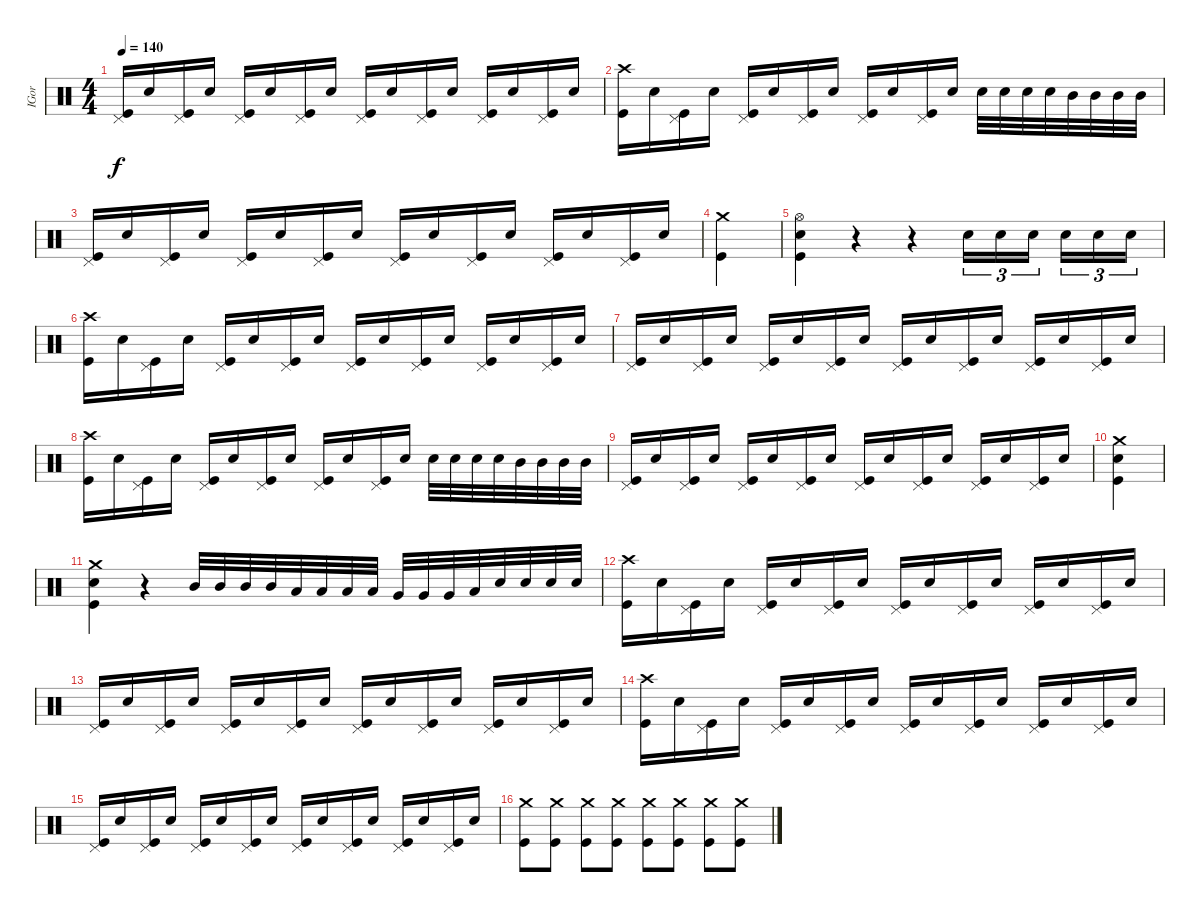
\track ("IGor" "IGor") {instrument percussion}
\staff {score}
\articulation defaults
\ts (4 4)
\tempo 140
\clef neutral
\ks c
("Kick (hit)" "Pedal Hi-Hat (hit)").16{dy f} "Electric Snare (hit)".16 ("Pedal Hi-Hat (hit)" "Kick (hit)").16 "Electric Snare (hit)".16 ("Pedal Hi-Hat (hit)" "Kick (hit)").16 "Electric Snare (hit)".16 ("Pedal Hi-Hat (hit)" "Kick (hit)").16 "Electric Snare (hit)".16 ("Pedal Hi-Hat (hit)" "Kick (hit)").16 "Electric Snare (hit)".16 ("Pedal Hi-Hat (hit)" "Kick (hit)").16 "Electric Snare (hit)".16 ("Pedal Hi-Hat (hit)" "Kick (hit)").16 "Electric Snare (hit)".16 ("Pedal Hi-Hat (hit)" "Kick (hit)").16 "Electric Snare (hit)".16 |
("Kick (hit)" "Crash high (hit)").16 "Electric Snare (hit)".16 ("Pedal Hi-Hat (hit)" "Kick (hit)").16 "Electric Snare (hit)".16 ("Pedal Hi-Hat (hit)" "Kick (hit)").16 "Electric Snare (hit)".16 ("Pedal Hi-Hat (hit)" "Kick (hit)").16 "Electric Snare (hit)".16 ("Pedal Hi-Hat (hit)" "Kick (hit)").16 "Electric Snare (hit)".16 ("Pedal Hi-Hat (hit)" "Kick (hit)").16 "Electric Snare (hit)".16 "Electric Snare (hit)".32 "Electric Snare (hit)".32 "Electric Snare (hit)".32 "Electric Snare (hit)".32 "Mid Tom (hit)".32 "Mid Tom (hit)".32 "Mid Tom (hit)".32 "Mid Tom (hit)".32 |
("Kick (hit)" "Pedal Hi-Hat (hit)").16 "Electric Snare (hit)".16 ("Pedal Hi-Hat (hit)" "Kick (hit)").16 "Electric Snare (hit)".16 ("Pedal Hi-Hat (hit)" "Kick (hit)").16 "Electric Snare (hit)".16 ("Pedal Hi-Hat (hit)" "Kick (hit)").16 "Electric Snare (hit)".16 ("Pedal Hi-Hat (hit)" "Kick (hit)").16 "Electric Snare (hit)".16 ("Pedal Hi-Hat (hit)" "Kick (hit)").16 "Electric Snare (hit)".16 ("Pedal Hi-Hat (hit)" "Kick (hit)").16 "Electric Snare (hit)".16 ("Pedal Hi-Hat (hit)" "Kick (hit)").16 "Electric Snare (hit)".16 |
("Kick (hit)" "Crash medium (hit)").4 |
("Electric Snare (hit)" "Kick (hit)" "Hi-Hat (open)").4 r.4 r.4 "Electric Snare (hit)".16{tu (3 2)} "Electric Snare (hit)".16{tu (3 2)} "Electric Snare (hit)".16{tu (3 2)} "Electric Snare (hit)".16{tu (3 2)} "Electric Snare (hit)".16{tu (3 2)} "Electric Snare (hit)".16{tu (3 2)} |
("Kick (hit)" "Crash high (hit)").16 "Electric Snare (hit)".16 ("Pedal Hi-Hat (hit)" "Kick (hit)").16 "Electric Snare (hit)".16 ("Pedal Hi-Hat (hit)" "Kick (hit)").16 "Electric Snare (hit)".16 ("Pedal Hi-Hat (hit)" "Kick (hit)").16 "Electric Snare (hit)".16 ("Pedal Hi-Hat (hit)" "Kick (hit)").16 "Electric Snare (hit)".16 ("Pedal Hi-Hat (hit)" "Kick (hit)").16 "Electric Snare (hit)".16 ("Pedal Hi-Hat (hit)" "Kick (hit)").16 "Electric Snare (hit)".16 ("Pedal Hi-Hat (hit)" "Kick (hit)").16 "Electric Snare (hit)".16 |
("Kick (hit)" "Pedal Hi-Hat (hit)").16 "Electric Snare (hit)".16 ("Pedal Hi-Hat (hit)" "Kick (hit)").16 "Electric Snare (hit)".16 ("Pedal Hi-Hat (hit)" "Kick (hit)").16 "Electric Snare (hit)".16 ("Pedal Hi-Hat (hit)" "Kick (hit)").16 "Electric Snare (hit)".16 ("Pedal Hi-Hat (hit)" "Kick (hit)").16 "Electric Snare (hit)".16 ("Pedal Hi-Hat (hit)" "Kick (hit)").16 "Electric Snare (hit)".16 ("Pedal Hi-Hat (hit)" "Kick (hit)").16 "Electric Snare (hit)".16 ("Pedal Hi-Hat (hit)" "Kick (hit)").16 "Electric Snare (hit)".16 |
("Kick (hit)" "Crash high (hit)").16 "Electric Snare (hit)".16 ("Pedal Hi-Hat (hit)" "Kick (hit)").16 "Electric Snare (hit)".16 ("Pedal Hi-Hat (hit)" "Kick (hit)").16 "Electric Snare (hit)".16 ("Pedal Hi-Hat (hit)" "Kick (hit)").16 "Electric Snare (hit)".16 ("Pedal Hi-Hat (hit)" "Kick (hit)").16 "Electric Snare (hit)".16 ("Pedal Hi-Hat (hit)" "Kick (hit)").16 "Electric Snare (hit)".16 "Electric Snare (hit)".32 "Electric Snare (hit)".32 "Electric Snare (hit)".32 "Electric Snare (hit)".32 "Mid Tom (hit)".32 "Mid Tom (hit)".32 "Mid Tom (hit)".32 "Mid Tom (hit)".32 |
("Kick (hit)" "Pedal Hi-Hat (hit)").16 "Electric Snare (hit)".16 ("Pedal Hi-Hat (hit)" "Kick (hit)").16 "Electric Snare (hit)".16 ("Pedal Hi-Hat (hit)" "Kick (hit)").16 "Electric Snare (hit)".16 ("Pedal Hi-Hat (hit)" "Kick (hit)").16 "Electric Snare (hit)".16 ("Pedal Hi-Hat (hit)" "Kick (hit)").16 "Electric Snare (hit)".16 ("Pedal Hi-Hat (hit)" "Kick (hit)").16 "Electric Snare (hit)".16 ("Pedal Hi-Hat (hit)" "Kick (hit)").16 "Electric Snare (hit)".16 ("Pedal Hi-Hat (hit)" "Kick (hit)").16 "Electric Snare (hit)".16 |
("Electric Snare (hit)" "Kick (hit)" "Crash medium (hit)").4 |
("Electric Snare (hit)" "Kick (hit)" "Crash medium (hit)").4 r.4 "Mid Tom (hit)".32 "Mid Tom (hit)".32 "Mid Tom (hit)".32 "Mid Tom (hit)".32 "Low Tom (hit)".32 "Low Tom (hit)".32 "Low Tom (hit)".32 "Low Tom (hit)".32 "Very Low Tom (hit)".32 "Very Low Tom (hit)".32 "Very Low Tom (hit)".32 "Low Floor Tom (hit)".32 "Electric Snare (hit)".32 "Electric Snare (hit)".32 "Electric Snare (hit)".32 "Electric Snare (hit)".32 |
("Kick (hit)" "Crash high (hit)").16 "Electric Snare (hit)".16 ("Pedal Hi-Hat (hit)" "Kick (hit)").16 "Electric Snare (hit)".16 ("Pedal Hi-Hat (hit)" "Kick (hit)").16 "Electric Snare (hit)".16 ("Pedal Hi-Hat (hit)" "Kick (hit)").16 "Electric Snare (hit)".16 ("Pedal Hi-Hat (hit)" "Kick (hit)").16 "Electric Snare (hit)".16 ("Pedal Hi-Hat (hit)" "Kick (hit)").16 "Electric Snare (hit)".16 ("Pedal Hi-Hat (hit)" "Kick (hit)").16 "Electric Snare (hit)".16 ("Pedal Hi-Hat (hit)" "Kick (hit)").16 "Electric Snare (hit)".16 |
("Kick (hit)" "Pedal Hi-Hat (hit)").16 "Electric Snare (hit)".16 ("Pedal Hi-Hat (hit)" "Kick (hit)").16 "Electric Snare (hit)".16 ("Pedal Hi-Hat (hit)" "Kick (hit)").16 "Electric Snare (hit)".16 ("Pedal Hi-Hat (hit)" "Kick (hit)").16 "Electric Snare (hit)".16 ("Pedal Hi-Hat (hit)" "Kick (hit)").16 "Electric Snare (hit)".16 ("Pedal Hi-Hat (hit)" "Kick (hit)").16 "Electric Snare (hit)".16 ("Pedal Hi-Hat (hit)" "Kick (hit)").16 "Electric Snare (hit)".16 ("Pedal Hi-Hat (hit)" "Kick (hit)").16 "Electric Snare (hit)".16 |
("Kick (hit)" "Crash high (hit)").16 "Electric Snare (hit)".16 ("Pedal Hi-Hat (hit)" "Kick (hit)").16 "Electric Snare (hit)".16 ("Pedal Hi-Hat (hit)" "Kick (hit)").16 "Electric Snare (hit)".16 ("Pedal Hi-Hat (hit)" "Kick (hit)").16 "Electric Snare (hit)".16 ("Pedal Hi-Hat (hit)" "Kick (hit)").16 "Electric Snare (hit)".16 ("Pedal Hi-Hat (hit)" "Kick (hit)").16 "Electric Snare (hit)".16 ("Pedal Hi-Hat (hit)" "Kick (hit)").16 "Electric Snare (hit)".16 ("Pedal Hi-Hat (hit)" "Kick (hit)").16 "Electric Snare (hit)".16 |
("Kick (hit)" "Pedal Hi-Hat (hit)").16 "Electric Snare (hit)".16 ("Pedal Hi-Hat (hit)" "Kick (hit)").16 "Electric Snare (hit)".16 ("Pedal Hi-Hat (hit)" "Kick (hit)").16 "Electric Snare (hit)".16 ("Pedal Hi-Hat (hit)" "Kick (hit)").16 "Electric Snare (hit)".16 ("Pedal Hi-Hat (hit)" "Kick (hit)").16 "Electric Snare (hit)".16 ("Pedal Hi-Hat (hit)" "Kick (hit)").16 "Electric Snare (hit)".16 ("Pedal Hi-Hat (hit)" "Kick (hit)").16 "Electric Snare (hit)".16 ("Pedal Hi-Hat (hit)" "Kick (hit)").16 "Electric Snare (hit)".16 |
("Kick (hit)" "Crash medium (hit)").8 ("Kick (hit)" "Crash medium (hit)").8 ("Kick (hit)" "Crash medium (hit)").8 ("Kick (hit)" "Crash medium (hit)").8 ("Kick (hit)" "Crash medium (hit)").8 ("Kick (hit)" "Crash medium (hit)").8 ("Kick (hit)" "Crash medium (hit)").8 ("Kick (hit)" "Crash medium (hit)").8
